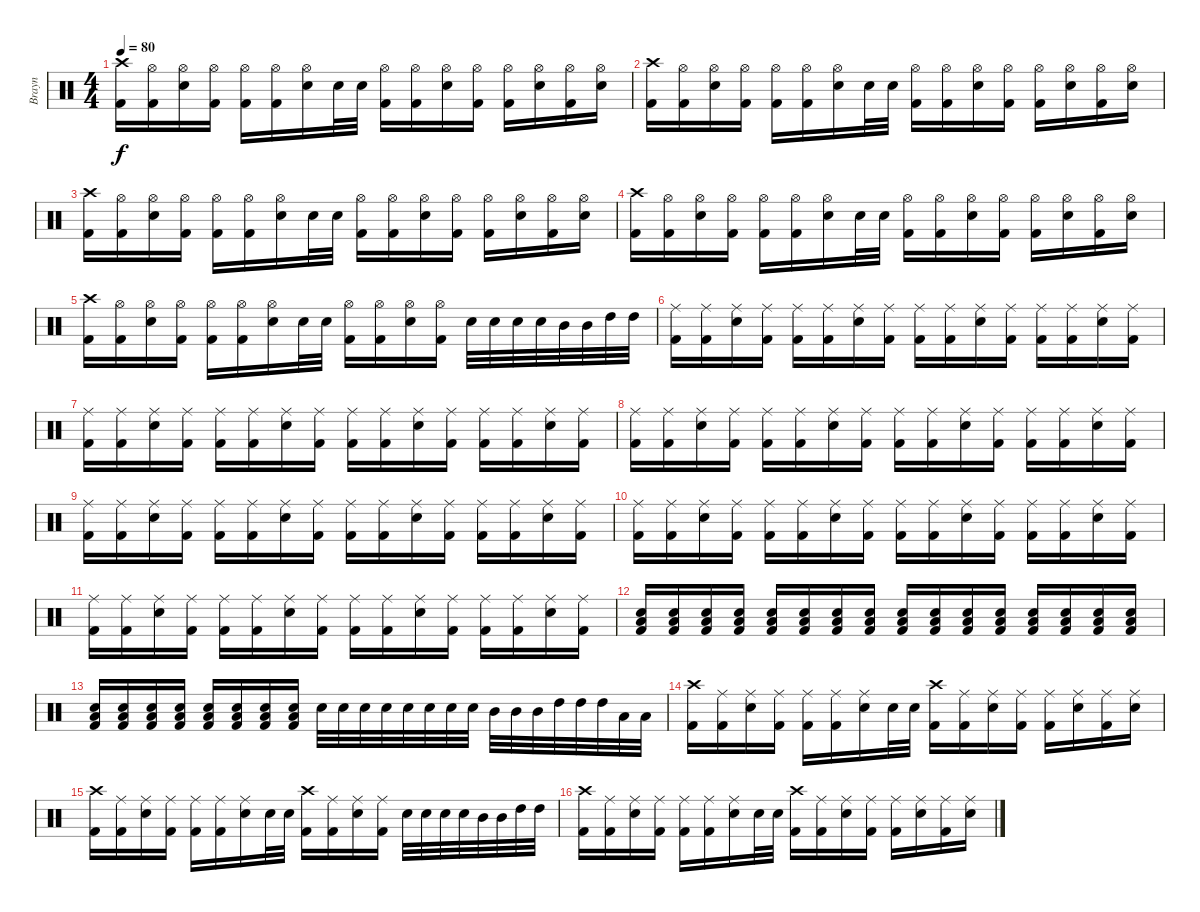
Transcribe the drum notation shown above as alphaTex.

\track ("Brayn" "Brayn") {instrument percussion}
\staff {score}
\articulation defaults
\ts (4 4)
\tempo 80
\clef neutral
\ks c
("Crash high (hit)" "Kick (hit) 2").16{dy f} ("Hi-Hat (open)" "Kick (hit) 2").16 ("Hi-Hat (open)" "Snare (hit) 2").16 ("Hi-Hat (open)" "Kick (hit) 2").16 ("Hi-Hat (open)" "Kick (hit) 2").16 ("Hi-Hat (open)" "Kick (hit) 2").16 ("Hi-Hat (open)" "Snare (hit) 2").16 "Snare (hit) 2".32 "Snare (hit) 2".32 ("Hi-Hat (open)" "Kick (hit) 2").16 ("Hi-Hat (open)" "Kick (hit) 2").16 ("Hi-Hat (open)" "Snare (hit) 2").16 ("Hi-Hat (open)" "Kick (hit) 2").16 ("Hi-Hat (open)" "Kick (hit) 2").16 ("Hi-Hat (open)" "Snare (hit) 2").16 ("Hi-Hat (open)" "Kick (hit) 2").16 ("Hi-Hat (open)" "Snare (hit) 2").16 |
("Crash high (hit)" "Kick (hit) 2").16 ("Hi-Hat (open)" "Kick (hit) 2").16 ("Hi-Hat (open)" "Snare (hit) 2").16 ("Hi-Hat (open)" "Kick (hit) 2").16 ("Hi-Hat (open)" "Kick (hit) 2").16 ("Hi-Hat (open)" "Kick (hit) 2").16 ("Hi-Hat (open)" "Snare (hit) 2").16 "Snare (hit) 2".32 "Snare (hit) 2".32 ("Hi-Hat (open)" "Kick (hit) 2").16 ("Hi-Hat (open)" "Kick (hit) 2").16 ("Hi-Hat (open)" "Snare (hit) 2").16 ("Hi-Hat (open)" "Kick (hit) 2").16 ("Hi-Hat (open)" "Kick (hit) 2").16 ("Hi-Hat (open)" "Snare (hit) 2").16 ("Hi-Hat (open)" "Kick (hit) 2").16 ("Hi-Hat (open)" "Snare (hit) 2").16 |
("Crash high (hit)" "Kick (hit) 2").16 ("Hi-Hat (open)" "Kick (hit) 2").16 ("Hi-Hat (open)" "Snare (hit) 2").16 ("Hi-Hat (open)" "Kick (hit) 2").16 ("Hi-Hat (open)" "Kick (hit) 2").16 ("Hi-Hat (open)" "Kick (hit) 2").16 ("Hi-Hat (open)" "Snare (hit) 2").16 "Snare (hit) 2".32 "Snare (hit) 2".32 ("Hi-Hat (open)" "Kick (hit) 2").16 ("Hi-Hat (open)" "Kick (hit) 2").16 ("Hi-Hat (open)" "Snare (hit) 2").16 ("Hi-Hat (open)" "Kick (hit) 2").16 ("Hi-Hat (open)" "Kick (hit) 2").16 ("Hi-Hat (open)" "Snare (hit) 2").16 ("Hi-Hat (open)" "Kick (hit) 2").16 ("Hi-Hat (open)" "Snare (hit) 2").16 |
("Crash high (hit)" "Kick (hit) 2").16 ("Hi-Hat (open)" "Kick (hit) 2").16 ("Hi-Hat (open)" "Snare (hit) 2").16 ("Hi-Hat (open)" "Kick (hit) 2").16 ("Hi-Hat (open)" "Kick (hit) 2").16 ("Hi-Hat (open)" "Kick (hit) 2").16 ("Hi-Hat (open)" "Snare (hit) 2").16 "Snare (hit) 2".32 "Snare (hit) 2".32 ("Hi-Hat (open)" "Kick (hit) 2").16 ("Hi-Hat (open)" "Kick (hit) 2").16 ("Hi-Hat (open)" "Snare (hit) 2").16 ("Hi-Hat (open)" "Kick (hit) 2").16 ("Hi-Hat (open)" "Kick (hit) 2").16 ("Hi-Hat (open)" "Snare (hit) 2").16 ("Hi-Hat (open)" "Kick (hit) 2").16 ("Hi-Hat (open)" "Snare (hit) 2").16 |
("Crash high (hit)" "Kick (hit) 2").16 ("Hi-Hat (open)" "Kick (hit) 2").16 ("Hi-Hat (open)" "Snare (hit) 2").16 ("Hi-Hat (open)" "Kick (hit) 2").16 ("Hi-Hat (open)" "Kick (hit) 2").16 ("Hi-Hat (open)" "Kick (hit) 2").16 ("Hi-Hat (open)" "Snare (hit) 2").16 "Snare (hit) 2".32 "Snare (hit) 2".32 ("Hi-Hat (open)" "Kick (hit) 2").16 ("Hi-Hat (open)" "Kick (hit) 2").16 ("Hi-Hat (open)" "Snare (hit) 2").16 ("Hi-Hat (open)" "Kick (hit) 2").16 "Snare (hit) 2".32 "Snare (hit) 2".32 "Snare (hit) 2".32 "Snare (hit) 2".32 "Mid Tom (hit)".32 "Mid Tom (hit)".32 "High Tom (hit)".32 "High Tom (hit)".32 |
("Ride (middle)" "Kick (hit) 2").16 ("Ride (middle)" "Kick (hit) 2").16 ("Ride (middle)" "Snare (hit) 2").16 ("Ride (middle)" "Kick (hit) 2").16 ("Ride (middle)" "Kick (hit) 2").16 ("Ride (middle)" "Kick (hit) 2").16 ("Ride (middle)" "Snare (hit) 2").16 ("Ride (middle)" "Kick (hit) 2").16 ("Ride (middle)" "Kick (hit) 2").16 ("Ride (middle)" "Kick (hit) 2").16 ("Ride (middle)" "Snare (hit) 2").16 ("Ride (middle)" "Kick (hit) 2").16 ("Ride (middle)" "Kick (hit) 2").16 ("Ride (middle)" "Kick (hit) 2").16 ("Ride (middle)" "Snare (hit) 2").16 ("Ride (middle)" "Kick (hit) 2").16 |
("Ride (middle)" "Kick (hit) 2").16 ("Ride (middle)" "Kick (hit) 2").16 ("Ride (middle)" "Snare (hit) 2").16 ("Ride (middle)" "Kick (hit) 2").16 ("Ride (middle)" "Kick (hit) 2").16 ("Ride (middle)" "Kick (hit) 2").16 ("Ride (middle)" "Snare (hit) 2").16 ("Ride (middle)" "Kick (hit) 2").16 ("Ride (middle)" "Kick (hit) 2").16 ("Ride (middle)" "Kick (hit) 2").16 ("Ride (middle)" "Snare (hit) 2").16 ("Ride (middle)" "Kick (hit) 2").16 ("Ride (middle)" "Kick (hit) 2").16 ("Ride (middle)" "Kick (hit) 2").16 ("Ride (middle)" "Snare (hit) 2").16 ("Ride (middle)" "Kick (hit) 2").16 |
("Ride (middle)" "Kick (hit) 2").16 ("Ride (middle)" "Kick (hit) 2").16 ("Ride (middle)" "Snare (hit) 2").16 ("Ride (middle)" "Kick (hit) 2").16 ("Ride (middle)" "Kick (hit) 2").16 ("Ride (middle)" "Kick (hit) 2").16 ("Ride (middle)" "Snare (hit) 2").16 ("Ride (middle)" "Kick (hit) 2").16 ("Ride (middle)" "Kick (hit) 2").16 ("Ride (middle)" "Kick (hit) 2").16 ("Ride (middle)" "Snare (hit) 2").16 ("Ride (middle)" "Kick (hit) 2").16 ("Ride (middle)" "Kick (hit) 2").16 ("Ride (middle)" "Kick (hit) 2").16 ("Ride (middle)" "Snare (hit) 2").16 ("Ride (middle)" "Kick (hit) 2").16 |
("Ride (middle)" "Kick (hit) 2").16 ("Ride (middle)" "Kick (hit) 2").16 ("Ride (middle)" "Snare (hit) 2").16 ("Ride (middle)" "Kick (hit) 2").16 ("Ride (middle)" "Kick (hit) 2").16 ("Ride (middle)" "Kick (hit) 2").16 ("Ride (middle)" "Snare (hit) 2").16 ("Ride (middle)" "Kick (hit) 2").16 ("Ride (middle)" "Kick (hit) 2").16 ("Ride (middle)" "Kick (hit) 2").16 ("Ride (middle)" "Snare (hit) 2").16 ("Ride (middle)" "Kick (hit) 2").16 ("Ride (middle)" "Kick (hit) 2").16 ("Ride (middle)" "Kick (hit) 2").16 ("Ride (middle)" "Snare (hit) 2").16 ("Ride (middle)" "Kick (hit) 2").16 |
("Ride (middle)" "Kick (hit) 2").16 ("Ride (middle)" "Kick (hit) 2").16 ("Ride (middle)" "Snare (hit) 2").16 ("Ride (middle)" "Kick (hit) 2").16 ("Ride (middle)" "Kick (hit) 2").16 ("Ride (middle)" "Kick (hit) 2").16 ("Ride (middle)" "Snare (hit) 2").16 ("Ride (middle)" "Kick (hit) 2").16 ("Ride (middle)" "Kick (hit) 2").16 ("Ride (middle)" "Kick (hit) 2").16 ("Ride (middle)" "Snare (hit) 2").16 ("Ride (middle)" "Kick (hit) 2").16 ("Ride (middle)" "Kick (hit) 2").16 ("Ride (middle)" "Kick (hit) 2").16 ("Ride (middle)" "Snare (hit) 2").16 ("Ride (middle)" "Kick (hit) 2").16 |
("Ride (middle)" "Kick (hit) 2").16 ("Ride (middle)" "Kick (hit) 2").16 ("Ride (middle)" "Snare (hit) 2").16 ("Ride (middle)" "Kick (hit) 2").16 ("Ride (middle)" "Kick (hit) 2").16 ("Ride (middle)" "Kick (hit) 2").16 ("Ride (middle)" "Snare (hit) 2").16 ("Ride (middle)" "Kick (hit) 2").16 ("Ride (middle)" "Kick (hit) 2").16 ("Ride (middle)" "Kick (hit) 2").16 ("Ride (middle)" "Snare (hit) 2").16 ("Ride (middle)" "Kick (hit) 2").16 ("Ride (middle)" "Kick (hit) 2").16 ("Ride (middle)" "Kick (hit) 2").16 ("Ride (middle)" "Snare (hit) 2").16 ("Ride (middle)" "Kick (hit) 2").16 |
("Kick (hit) 2" "Low Tom (hit)" "Snare (hit) 2").16 ("Kick (hit) 2" "Low Tom (hit)" "Snare (hit) 2").16 ("Kick (hit) 2" "Low Tom (hit)" "Snare (hit) 2").16 ("Kick (hit) 2" "Low Tom (hit)" "Snare (hit) 2").16 ("Kick (hit) 2" "Low Tom (hit)" "Snare (hit) 2").16 ("Kick (hit) 2" "Low Tom (hit)" "Snare (hit) 2").16 ("Kick (hit) 2" "Low Tom (hit)" "Snare (hit) 2").16 ("Kick (hit) 2" "Low Tom (hit)" "Snare (hit) 2").16 ("Kick (hit) 2" "Low Tom (hit)" "Snare (hit) 2").16 ("Kick (hit) 2" "Low Tom (hit)" "Snare (hit) 2").16 ("Kick (hit) 2" "Low Tom (hit)" "Snare (hit) 2").16 ("Kick (hit) 2" "Low Tom (hit)" "Snare (hit) 2").16 ("Kick (hit) 2" "Low Tom (hit)" "Snare (hit) 2").16 ("Kick (hit) 2" "Low Tom (hit)" "Snare (hit) 2").16 ("Kick (hit) 2" "Low Tom (hit)" "Snare (hit) 2").16 ("Kick (hit) 2" "Low Tom (hit)" "Snare (hit) 2").16 |
("Kick (hit) 2" "Low Tom (hit)" "Snare (hit) 2").16 ("Kick (hit) 2" "Low Tom (hit)" "Snare (hit) 2").16 ("Kick (hit) 2" "Low Tom (hit)" "Snare (hit) 2").16 ("Kick (hit) 2" "Low Tom (hit)" "Snare (hit) 2").16 ("Kick (hit) 2" "Low Tom (hit)" "Snare (hit) 2").16 ("Kick (hit) 2" "Low Tom (hit)" "Snare (hit) 2").16 ("Kick (hit) 2" "Low Tom (hit)" "Snare (hit) 2").16 ("Kick (hit) 2" "Low Tom (hit)" "Snare (hit) 2").16 "Snare (hit) 2".32 "Snare (hit) 2".32 "Snare (hit) 2".32 "Snare (hit) 2".32 "Snare (hit) 2".32 "Snare (hit) 2".32 "Snare (hit) 2".32 "Snare (hit) 2".32 "Mid Tom (hit)".32 "Mid Tom (hit)".32 "Mid Tom (hit)".32 "High Tom (hit)".32 "High Tom (hit)".32 "High Tom (hit)".32 "Low Tom (hit)".32 "Low Tom (hit)".32 |
("Crash high (hit)" "Kick (hit) 2").16 ("Ride (middle)" "Kick (hit) 2").16 ("Ride (middle)" "Snare (hit) 2").16 ("Ride (middle)" "Kick (hit) 2").16 ("Ride (middle)" "Kick (hit) 2").16 ("Ride (middle)" "Kick (hit) 2").16 ("Ride (middle)" "Snare (hit) 2").16 "Snare (hit) 2".32 "Snare (hit) 2".32 ("Crash high (hit)" "Kick (hit) 2").16 ("Ride (middle)" "Kick (hit) 2").16 ("Ride (middle)" "Snare (hit) 2").16 ("Ride (middle)" "Kick (hit) 2").16 ("Ride (middle)" "Kick (hit) 2").16 ("Ride (middle)" "Snare (hit) 2").16 ("Ride (middle)" "Kick (hit) 2").16 ("Ride (middle)" "Snare (hit) 2").16 |
("Crash high (hit)" "Kick (hit) 2").16 ("Ride (middle)" "Kick (hit) 2").16 ("Ride (middle)" "Snare (hit) 2").16 ("Ride (middle)" "Kick (hit) 2").16 ("Ride (middle)" "Kick (hit) 2").16 ("Ride (middle)" "Kick (hit) 2").16 ("Ride (middle)" "Snare (hit) 2").16 "Snare (hit) 2".32 "Snare (hit) 2".32 ("Crash high (hit)" "Kick (hit) 2").16 ("Ride (middle)" "Kick (hit) 2").16 ("Ride (middle)" "Snare (hit) 2").16 ("Ride (middle)" "Kick (hit) 2").16 "Snare (hit) 2".32 "Snare (hit) 2".32 "Snare (hit) 2".32 "Snare (hit) 2".32 "Mid Tom (hit)".32 "Mid Tom (hit)".32 "High Tom (hit)".32 "High Tom (hit)".32 |
("Crash high (hit)" "Kick (hit) 2").16 ("Ride (middle)" "Kick (hit) 2").16 ("Ride (middle)" "Snare (hit) 2").16 ("Ride (middle)" "Kick (hit) 2").16 ("Ride (middle)" "Kick (hit) 2").16 ("Ride (middle)" "Kick (hit) 2").16 ("Ride (middle)" "Snare (hit) 2").16 "Snare (hit) 2".32 "Snare (hit) 2".32 ("Crash high (hit)" "Kick (hit) 2").16 ("Ride (middle)" "Kick (hit) 2").16 ("Ride (middle)" "Snare (hit) 2").16 ("Ride (middle)" "Kick (hit) 2").16 ("Ride (middle)" "Kick (hit) 2").16 ("Ride (middle)" "Snare (hit) 2").16 ("Ride (middle)" "Kick (hit) 2").16 ("Ride (middle)" "Snare (hit) 2").16
